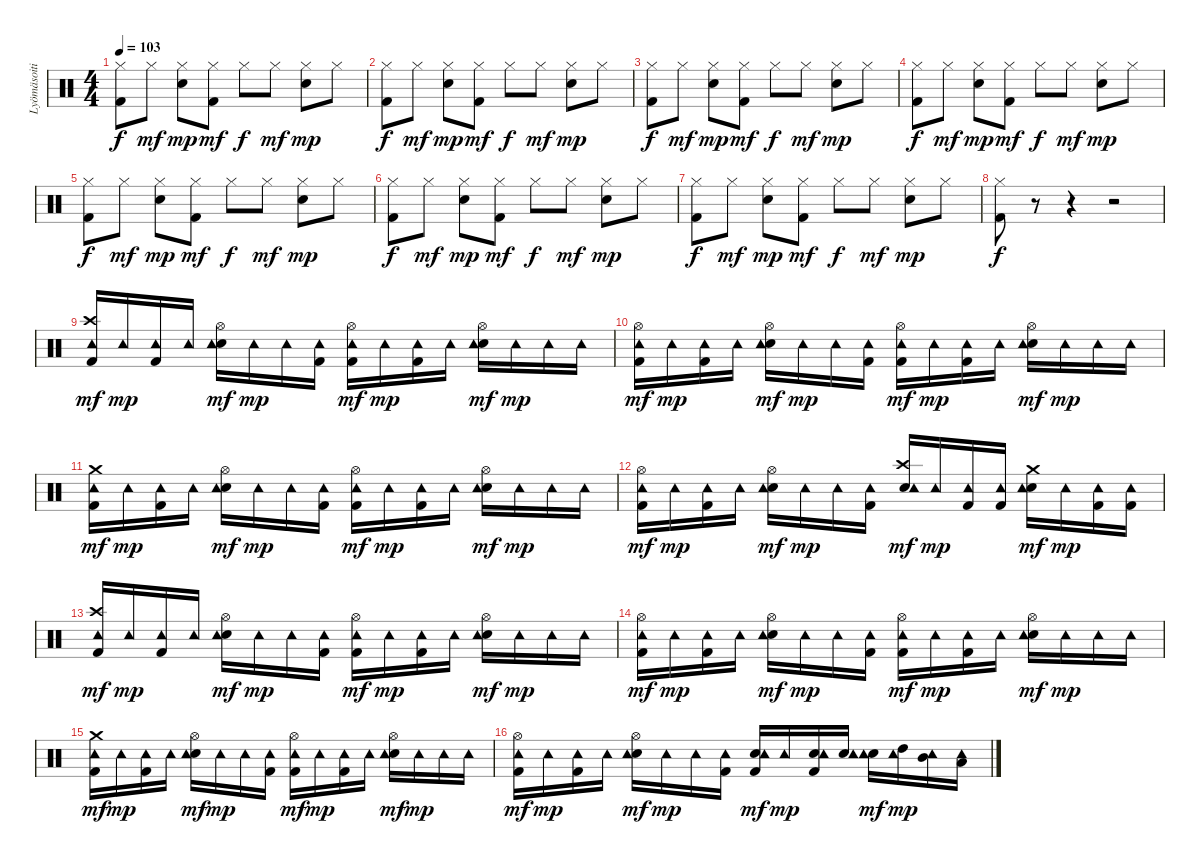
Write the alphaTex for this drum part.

\track ("Lyömäsoitin" "Lyömäsoiti") {instrument percussion}
\staff {score}
\articulation defaults
\ts (4 4)
\tempo 103
\clef neutral
\ks c
("Kick (hit) 2" "Hi-Hat (closed)").8{dy f} "Hi-Hat (closed)".8{dy mf} ("Hi-Hat (closed)" "Snare (hit) 2").8{dy mp} ("Kick (hit) 2" "Hi-Hat (closed)").8{dy mf} "Hi-Hat (closed)".8{dy f} "Hi-Hat (closed)".8{dy mf} ("Hi-Hat (closed)" "Snare (hit) 2").8{dy mp} "Hi-Hat (closed)".8 |
("Kick (hit) 2" "Hi-Hat (closed)").8{dy f} "Hi-Hat (closed)".8{dy mf} ("Hi-Hat (closed)" "Snare (hit) 2").8{dy mp} ("Kick (hit) 2" "Hi-Hat (closed)").8{dy mf} "Hi-Hat (closed)".8{dy f} "Hi-Hat (closed)".8{dy mf} ("Hi-Hat (closed)" "Snare (hit) 2").8{dy mp} "Hi-Hat (closed)".8 |
("Kick (hit) 2" "Hi-Hat (closed)").8{dy f} "Hi-Hat (closed)".8{dy mf} ("Hi-Hat (closed)" "Snare (hit) 2").8{dy mp} ("Kick (hit) 2" "Hi-Hat (closed)").8{dy mf} "Hi-Hat (closed)".8{dy f} "Hi-Hat (closed)".8{dy mf} ("Hi-Hat (closed)" "Snare (hit) 2").8{dy mp} "Hi-Hat (closed)".8 |
("Kick (hit) 2" "Hi-Hat (closed)").8{dy f} "Hi-Hat (closed)".8{dy mf} ("Hi-Hat (closed)" "Snare (hit) 2").8{dy mp} ("Kick (hit) 2" "Hi-Hat (closed)").8{dy mf} "Hi-Hat (closed)".8{dy f} "Hi-Hat (closed)".8{dy mf} ("Hi-Hat (closed)" "Snare (hit) 2").8{dy mp} "Hi-Hat (closed)".8 |
("Kick (hit) 2" "Hi-Hat (closed)").8{dy f} "Hi-Hat (closed)".8{dy mf} ("Hi-Hat (closed)" "Snare (hit) 2").8{dy mp} ("Kick (hit) 2" "Hi-Hat (closed)").8{dy mf} "Hi-Hat (closed)".8{dy f} "Hi-Hat (closed)".8{dy mf} ("Hi-Hat (closed)" "Snare (hit) 2").8{dy mp} "Hi-Hat (closed)".8 |
("Kick (hit) 2" "Hi-Hat (closed)").8{dy f} "Hi-Hat (closed)".8{dy mf} ("Hi-Hat (closed)" "Snare (hit) 2").8{dy mp} ("Kick (hit) 2" "Hi-Hat (closed)").8{dy mf} "Hi-Hat (closed)".8{dy f} "Hi-Hat (closed)".8{dy mf} ("Hi-Hat (closed)" "Snare (hit) 2").8{dy mp} "Hi-Hat (closed)".8 |
("Kick (hit) 2" "Hi-Hat (closed)").8{dy f} "Hi-Hat (closed)".8{dy mf} ("Hi-Hat (closed)" "Snare (hit) 2").8{dy mp} ("Kick (hit) 2" "Hi-Hat (closed)").8{dy mf} "Hi-Hat (closed)".8{dy f} "Hi-Hat (closed)".8{dy mf} ("Hi-Hat (closed)" "Snare (hit) 2").8{dy mp} "Hi-Hat (closed)".8 |
("Kick (hit) 2" "Hi-Hat (closed)").8{dy f} r.8 r.4 r.2 |
("Kick (hit) 2" "Crash high (hit)" "Tambourine (hit)").16{dy mf} "Tambourine (hit)".16{dy mp} ("Kick (hit) 2" "Tambourine (hit)").16 "Tambourine (hit)".16 ("Hi-Hat (open)" "Snare (hit) 2" "Tambourine (hit)").16{dy mf} "Tambourine (hit)".16{dy mp} "Tambourine (hit)".16 ("Kick (hit) 2" "Tambourine (hit)").16 ("Kick (hit) 2" "Hi-Hat (open)" "Tambourine (hit)").16{dy mf} "Tambourine (hit)".16{dy mp} ("Kick (hit) 2" "Tambourine (hit)").16 "Tambourine (hit)".16 ("Hi-Hat (open)" "Snare (hit) 2" "Tambourine (hit)").16{dy mf} "Tambourine (hit)".16{dy mp} "Tambourine (hit)".16 "Tambourine (hit)".16 |
("Kick (hit) 2" "Hi-Hat (open)" "Tambourine (hit)").16{dy mf} "Tambourine (hit)".16{dy mp} ("Kick (hit) 2" "Tambourine (hit)").16 "Tambourine (hit)".16 ("Hi-Hat (open)" "Snare (hit) 2" "Tambourine (hit)").16{dy mf} "Tambourine (hit)".16{dy mp} "Tambourine (hit)".16 ("Kick (hit) 2" "Tambourine (hit)").16 ("Kick (hit) 2" "Hi-Hat (open)" "Tambourine (hit)").16{dy mf} "Tambourine (hit)".16{dy mp} ("Kick (hit) 2" "Tambourine (hit)").16 "Tambourine (hit)".16 ("Hi-Hat (open)" "Snare (hit) 2" "Tambourine (hit)").16{dy mf} "Tambourine (hit)".16{dy mp} "Tambourine (hit)".16 "Tambourine (hit)".16 |
("Kick (hit) 2" "Crash medium (hit)" "Tambourine (hit)").16{dy mf} "Tambourine (hit)".16{dy mp} ("Kick (hit) 2" "Tambourine (hit)").16 "Tambourine (hit)".16 ("Hi-Hat (open)" "Snare (hit) 2" "Tambourine (hit)").16{dy mf} "Tambourine (hit)".16{dy mp} "Tambourine (hit)".16 ("Kick (hit) 2" "Tambourine (hit)").16 ("Kick (hit) 2" "Hi-Hat (open)" "Tambourine (hit)").16{dy mf} "Tambourine (hit)".16{dy mp} ("Kick (hit) 2" "Tambourine (hit)").16 "Tambourine (hit)".16 ("Hi-Hat (open)" "Snare (hit) 2" "Tambourine (hit)").16{dy mf} "Tambourine (hit)".16{dy mp} "Tambourine (hit)".16 "Tambourine (hit)".16 |
("Kick (hit) 2" "Hi-Hat (open)" "Tambourine (hit)").16{dy mf} "Tambourine (hit)".16{dy mp} ("Kick (hit) 2" "Tambourine (hit)").16 "Tambourine (hit)".16 ("Hi-Hat (open)" "Snare (hit) 2" "Tambourine (hit)").16{dy mf} "Tambourine (hit)".16{dy mp} "Tambourine (hit)".16 ("Kick (hit) 2" "Tambourine (hit)").16 ("Crash high (hit)" "Snare (hit) 2" "Tambourine (hit)").16{dy mf} "Tambourine (hit)".16{dy mp} ("Kick (hit) 2" "Tambourine (hit)").16 ("Kick (hit) 2" "Tambourine (hit)").16 ("Crash medium (hit)" "Snare (hit) 2" "Tambourine (hit)").16{dy mf} "Tambourine (hit)".16{dy mp} ("Kick (hit) 2" "Tambourine (hit)").16 ("Kick (hit) 2" "Tambourine (hit)").16 |
("Kick (hit) 2" "Crash high (hit)" "Tambourine (hit)").16{dy mf} "Tambourine (hit)".16{dy mp} ("Kick (hit) 2" "Tambourine (hit)").16 "Tambourine (hit)".16 ("Hi-Hat (open)" "Snare (hit) 2" "Tambourine (hit)").16{dy mf} "Tambourine (hit)".16{dy mp} "Tambourine (hit)".16 ("Kick (hit) 2" "Tambourine (hit)").16 ("Kick (hit) 2" "Hi-Hat (open)" "Tambourine (hit)").16{dy mf} "Tambourine (hit)".16{dy mp} ("Kick (hit) 2" "Tambourine (hit)").16 "Tambourine (hit)".16 ("Hi-Hat (open)" "Snare (hit) 2" "Tambourine (hit)").16{dy mf} "Tambourine (hit)".16{dy mp} "Tambourine (hit)".16 "Tambourine (hit)".16 |
("Kick (hit) 2" "Hi-Hat (open)" "Tambourine (hit)").16{dy mf} "Tambourine (hit)".16{dy mp} ("Kick (hit) 2" "Tambourine (hit)").16 "Tambourine (hit)".16 ("Hi-Hat (open)" "Snare (hit) 2" "Tambourine (hit)").16{dy mf} "Tambourine (hit)".16{dy mp} "Tambourine (hit)".16 ("Kick (hit) 2" "Tambourine (hit)").16 ("Kick (hit) 2" "Hi-Hat (open)" "Tambourine (hit)").16{dy mf} "Tambourine (hit)".16{dy mp} ("Kick (hit) 2" "Tambourine (hit)").16 "Tambourine (hit)".16 ("Hi-Hat (open)" "Snare (hit) 2" "Tambourine (hit)").16{dy mf} "Tambourine (hit)".16{dy mp} "Tambourine (hit)".16 "Tambourine (hit)".16 |
("Kick (hit) 2" "Crash medium (hit)" "Tambourine (hit)").16{dy mf} "Tambourine (hit)".16{dy mp} ("Kick (hit) 2" "Tambourine (hit)").16 "Tambourine (hit)".16 ("Hi-Hat (open)" "Snare (hit) 2" "Tambourine (hit)").16{dy mf} "Tambourine (hit)".16{dy mp} "Tambourine (hit)".16 ("Kick (hit) 2" "Tambourine (hit)").16 ("Kick (hit) 2" "Hi-Hat (open)" "Tambourine (hit)").16{dy mf} "Tambourine (hit)".16{dy mp} ("Kick (hit) 2" "Tambourine (hit)").16 "Tambourine (hit)".16 ("Hi-Hat (open)" "Snare (hit) 2" "Tambourine (hit)").16{dy mf} "Tambourine (hit)".16{dy mp} "Tambourine (hit)".16 "Tambourine (hit)".16 |
("Kick (hit) 2" "Hi-Hat (open)" "Tambourine (hit)").16{dy mf} "Tambourine (hit)".16{dy mp} ("Kick (hit) 2" "Tambourine (hit)").16 "Tambourine (hit)".16 ("Hi-Hat (open)" "Snare (hit) 2" "Tambourine (hit)").16{dy mf} "Tambourine (hit)".16{dy mp} "Tambourine (hit)".16 ("Kick (hit) 2" "Tambourine (hit)").16 ("Kick (hit) 2" "Snare (hit) 2" "Tambourine (hit)").16{dy mf} "Tambourine (hit)".16{dy mp} ("Kick (hit) 2" "Snare (hit) 2" "Tambourine (hit)").16 ("Snare (hit) 2" "Tambourine (hit)").16 ("Snare (hit) 2" "Tambourine (hit)").16{dy mf} ("High Tom (hit)" "Tambourine (hit)").16{dy mp} ("Mid Tom (hit)" "Tambourine (hit)").16 ("Low Tom (hit)" "Tambourine (hit)").16
